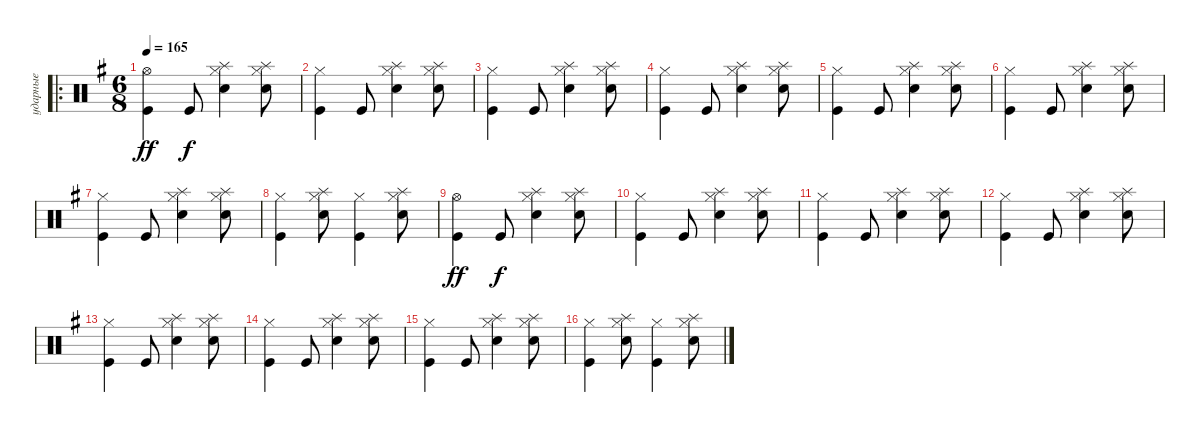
\track ("ударные" "ударные") {instrument percussion}
\staff {score}
\articulation defaults
\ro
\ts (6 8)
\tempo 165
\clef neutral
\ks eminor
("Kick (hit)" "Hi-Hat (open)").4{dy ff} "Kick (hit)".8{dy f} ("Snare (hit) 2" "Hi-Hat (closed)" "Splash (hit)").4 ("Snare (hit) 2" "Hi-Hat (closed)" "Splash (hit)").8 |
("Kick (hit)" "Hi-Hat (closed)").4 "Kick (hit)".8 ("Snare (hit) 2" "Hi-Hat (closed)" "Splash (hit)").4 ("Snare (hit) 2" "Hi-Hat (closed)" "Splash (hit)").8 |
("Kick (hit)" "Hi-Hat (closed)").4 "Kick (hit)".8 ("Snare (hit) 2" "Hi-Hat (closed)" "Splash (hit)").4 ("Snare (hit) 2" "Hi-Hat (closed)" "Splash (hit)").8 |
("Kick (hit)" "Hi-Hat (closed)").4 "Kick (hit)".8 ("Snare (hit) 2" "Hi-Hat (closed)" "Splash (hit)").4 ("Snare (hit) 2" "Hi-Hat (closed)" "Splash (hit)").8 |
("Kick (hit)" "Hi-Hat (closed)").4 "Kick (hit)".8 ("Snare (hit) 2" "Hi-Hat (closed)" "Splash (hit)").4 ("Snare (hit) 2" "Hi-Hat (closed)" "Splash (hit)").8 |
("Kick (hit)" "Hi-Hat (closed)").4 "Kick (hit)".8 ("Snare (hit) 2" "Hi-Hat (closed)" "Splash (hit)").4 ("Snare (hit) 2" "Hi-Hat (closed)" "Splash (hit)").8 |
("Kick (hit)" "Hi-Hat (closed)").4 "Kick (hit)".8 ("Snare (hit) 2" "Hi-Hat (closed)" "Splash (hit)").4 ("Snare (hit) 2" "Hi-Hat (closed)" "Splash (hit)").8 |
("Kick (hit)" "Hi-Hat (closed)").4 ("Snare (hit) 2" "Hi-Hat (closed)" "Splash (hit)").8 ("Kick (hit)" "Hi-Hat (closed)").4 ("Snare (hit) 2" "Hi-Hat (closed)" "Splash (hit)").8 |
("Kick (hit)" "Hi-Hat (open)").4{dy ff} "Kick (hit)".8{dy f} ("Snare (hit) 2" "Hi-Hat (closed)" "Splash (hit)").4 ("Snare (hit) 2" "Hi-Hat (closed)" "Splash (hit)").8 |
("Kick (hit)" "Hi-Hat (closed)").4 "Kick (hit)".8 ("Snare (hit) 2" "Hi-Hat (closed)" "Splash (hit)").4 ("Snare (hit) 2" "Hi-Hat (closed)" "Splash (hit)").8 |
("Kick (hit)" "Hi-Hat (closed)").4 "Kick (hit)".8 ("Snare (hit) 2" "Hi-Hat (closed)" "Splash (hit)").4 ("Snare (hit) 2" "Hi-Hat (closed)" "Splash (hit)").8 |
("Kick (hit)" "Hi-Hat (closed)").4 "Kick (hit)".8 ("Snare (hit) 2" "Hi-Hat (closed)" "Splash (hit)").4 ("Snare (hit) 2" "Hi-Hat (closed)" "Splash (hit)").8 |
("Kick (hit)" "Hi-Hat (closed)").4 "Kick (hit)".8 ("Snare (hit) 2" "Hi-Hat (closed)" "Splash (hit)").4 ("Snare (hit) 2" "Hi-Hat (closed)" "Splash (hit)").8 |
("Kick (hit)" "Hi-Hat (closed)").4 "Kick (hit)".8 ("Snare (hit) 2" "Hi-Hat (closed)" "Splash (hit)").4 ("Snare (hit) 2" "Hi-Hat (closed)" "Splash (hit)").8 |
("Kick (hit)" "Hi-Hat (closed)").4 "Kick (hit)".8 ("Snare (hit) 2" "Hi-Hat (closed)" "Splash (hit)").4 ("Snare (hit) 2" "Hi-Hat (closed)" "Splash (hit)").8 |
("Kick (hit)" "Hi-Hat (closed)").4 ("Snare (hit) 2" "Hi-Hat (closed)" "Splash (hit)").8 ("Kick (hit)" "Hi-Hat (closed)").4 ("Snare (hit) 2" "Hi-Hat (closed)" "Splash (hit)").8
